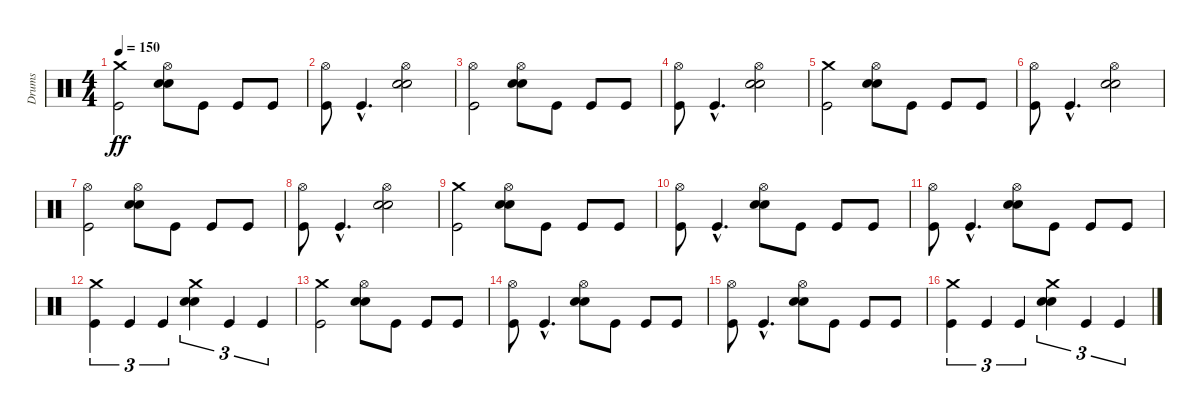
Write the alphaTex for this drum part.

\track ("Drums" "Drums") {instrument percussion}
\staff {score}
\articulation defaults
\ts (4 4)
\tempo 150
\clef neutral
\ks c
("Kick (hit)" "Crash medium (hit)").2{dy ff} ("Electric Snare (hit)" "Electric Snare (hit)" "Hi-Hat (open)").8 "Kick (hit)".8 "Kick (hit)".8 "Kick (hit)".8 |
("Kick (hit)" "Hi-Hat (open)").8 "Kick (hit)"{hac}.4{d} ("Electric Snare (hit)" "Electric Snare (hit)" "Hi-Hat (open)").2 |
("Kick (hit)" "Hi-Hat (open)").2 ("Electric Snare (hit)" "Electric Snare (hit)" "Hi-Hat (open)").8 "Kick (hit)".8 "Kick (hit)".8 "Kick (hit)".8 |
("Kick (hit)" "Hi-Hat (open)").8 "Kick (hit)"{hac}.4{d} ("Electric Snare (hit)" "Electric Snare (hit)" "Hi-Hat (open)").2 |
("Kick (hit)" "Crash medium (hit)").2 ("Electric Snare (hit)" "Electric Snare (hit)" "Hi-Hat (open)").8 "Kick (hit)".8 "Kick (hit)".8 "Kick (hit)".8 |
("Kick (hit)" "Hi-Hat (open)").8 "Kick (hit)"{hac}.4{d} ("Electric Snare (hit)" "Electric Snare (hit)" "Hi-Hat (open)").2 |
("Kick (hit)" "Hi-Hat (open)").2 ("Electric Snare (hit)" "Electric Snare (hit)" "Hi-Hat (open)").8 "Kick (hit)".8 "Kick (hit)".8 "Kick (hit)".8 |
("Kick (hit)" "Hi-Hat (open)").8 "Kick (hit)"{hac}.4{d} ("Electric Snare (hit)" "Electric Snare (hit)" "Hi-Hat (open)").2 |
("Kick (hit)" "Crash medium (hit)").2 ("Electric Snare (hit)" "Electric Snare (hit)" "Hi-Hat (open)").8 "Kick (hit)".8 "Kick (hit)".8 "Kick (hit)".8 |
("Kick (hit)" "Hi-Hat (open)").8 "Kick (hit)"{hac}.4{d} ("Electric Snare (hit)" "Electric Snare (hit)" "Hi-Hat (open)").8 "Kick (hit)".8 "Kick (hit)".8 "Kick (hit)".8 |
("Kick (hit)" "Hi-Hat (open)").8 "Kick (hit)"{hac}.4{d} ("Electric Snare (hit)" "Electric Snare (hit)" "Hi-Hat (open)").8 "Kick (hit)".8 "Kick (hit)".8 "Kick (hit)".8 |
("Kick (hit)" "Crash medium (hit)").4{tu (3 2)} "Kick (hit)".4{tu (3 2)} "Kick (hit)".4{tu (3 2)} ("Electric Snare (hit)" "Electric Snare (hit)" "Crash medium (hit)").4{tu (3 2)} "Kick (hit)".4{tu (3 2)} "Kick (hit)".4{tu (3 2)} |
("Kick (hit)" "Crash medium (hit)").2 ("Electric Snare (hit)" "Electric Snare (hit)" "Hi-Hat (open)").8 "Kick (hit)".8 "Kick (hit)".8 "Kick (hit)".8 |
("Kick (hit)" "Hi-Hat (open)").8 "Kick (hit)"{hac}.4{d} ("Electric Snare (hit)" "Electric Snare (hit)" "Hi-Hat (open)").8 "Kick (hit)".8 "Kick (hit)".8 "Kick (hit)".8 |
("Kick (hit)" "Hi-Hat (open)").8 "Kick (hit)"{hac}.4{d} ("Electric Snare (hit)" "Electric Snare (hit)" "Hi-Hat (open)").8 "Kick (hit)".8 "Kick (hit)".8 "Kick (hit)".8 |
("Kick (hit)" "Crash medium (hit)").4{tu (3 2)} "Kick (hit)".4{tu (3 2)} "Kick (hit)".4{tu (3 2)} ("Electric Snare (hit)" "Electric Snare (hit)" "Crash medium (hit)").4{tu (3 2)} "Kick (hit)".4{tu (3 2)} "Kick (hit)".4{tu (3 2)}
